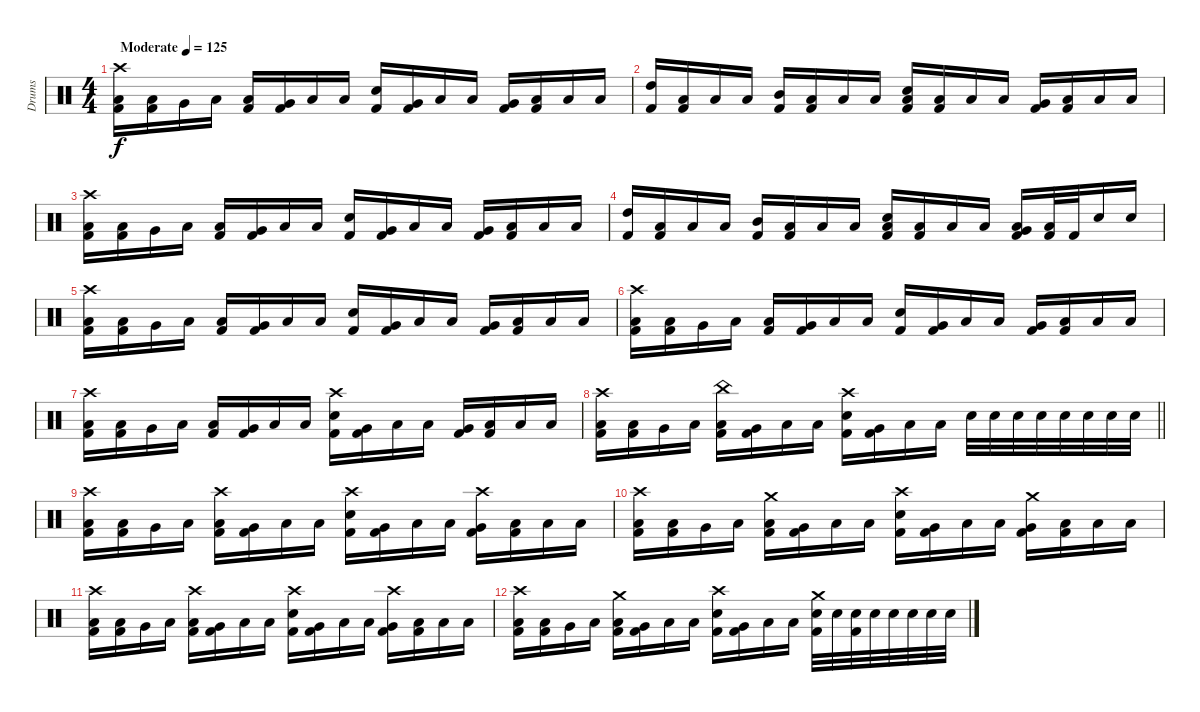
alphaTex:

\track ("Drums" "Drums") {instrument percussion}
\staff
\articulation defaults
\ts (4 4)
\tempo (125 "Moderate")
\clef neutral
\ks c
("Crash high (hit)" "Low Tom (hit)" "Kick (hit) 2").16{dy f} ("Low Floor Tom (hit)" "Kick (hit) 2").16 "Very Low Tom (hit)".16 "Low Tom (hit)".16 ("Low Floor Tom (hit)" "Kick (hit) 2").16 ("Very Low Tom (hit)" "Kick (hit) 2").16 "Low Floor Tom (hit)".16 "Low Tom (hit)".16 ("Electric Snare (hit)" "Kick (hit) 2").16 ("Very Low Tom (hit)" "Kick (hit) 2").16 "Low Tom (hit)".16 "Low Floor Tom (hit)".16 ("Very Low Tom (hit)" "Kick (hit) 2").16 ("Low Floor Tom (hit)" "Kick (hit) 2").16 "Low Tom (hit)".16 "Low Floor Tom (hit)".16 |
("High Tom (hit)" "Kick (hit) 2").16 ("Low Floor Tom (hit)" "Kick (hit) 2").16 "Low Floor Tom (hit)".16 "Low Floor Tom (hit)".16 ("Mid Tom (hit)" "Kick (hit) 2").16 ("Low Floor Tom (hit)" "Kick (hit) 2").16 "Low Floor Tom (hit)".16 "Low Floor Tom (hit)".16 ("Low Tom (hit)" "Electric Snare (hit)" "Kick (hit) 2").16 ("Low Floor Tom (hit)" "Kick (hit) 2").16 "Low Floor Tom (hit)".16 "Low Floor Tom (hit)".16 ("Very Low Tom (hit)" "Kick (hit) 2").16 ("Low Floor Tom (hit)" "Kick (hit) 2").16 "Low Floor Tom (hit)".16 "Low Floor Tom (hit)".16 |
("Crash high (hit)" "Low Tom (hit)" "Kick (hit) 2").16 ("Low Floor Tom (hit)" "Kick (hit) 2").16 "Very Low Tom (hit)".16 "Low Tom (hit)".16 ("Low Floor Tom (hit)" "Kick (hit) 2").16 ("Very Low Tom (hit)" "Kick (hit) 2").16 "Low Floor Tom (hit)".16 "Low Tom (hit)".16 ("Electric Snare (hit)" "Kick (hit) 2").16 ("Very Low Tom (hit)" "Kick (hit) 2").16 "Low Tom (hit)".16 "Low Floor Tom (hit)".16 ("Very Low Tom (hit)" "Kick (hit) 2").16 ("Low Floor Tom (hit)" "Kick (hit) 2").16 "Low Tom (hit)".16 "Low Floor Tom (hit)".16 |
("High Tom (hit)" "Kick (hit) 2").16 ("Low Floor Tom (hit)" "Kick (hit) 2").16 "Low Floor Tom (hit)".16 "Low Floor Tom (hit)".16 ("Mid Tom (hit)" "Kick (hit) 2").16 ("Low Floor Tom (hit)" "Kick (hit) 2").16 "Low Floor Tom (hit)".16 "Low Floor Tom (hit)".16 ("Low Tom (hit)" "Electric Snare (hit)" "Kick (hit) 2").16 ("Low Floor Tom (hit)" "Kick (hit) 2").16 "Low Floor Tom (hit)".16 "Low Floor Tom (hit)".16 ("Very Low Tom (hit)" "Low Floor Tom (hit)" "Kick (hit) 2").16 ("Low Floor Tom (hit)" "Kick (hit) 2").32 "Kick (hit) 2".32 "Electric Snare (hit)".16 "Electric Snare (hit)".16 |
("Crash high (hit)" "Low Tom (hit)" "Kick (hit) 2").16 ("Low Floor Tom (hit)" "Kick (hit) 2").16 "Very Low Tom (hit)".16 "Low Tom (hit)".16 ("Low Floor Tom (hit)" "Kick (hit) 2").16 ("Very Low Tom (hit)" "Kick (hit) 2").16 "Low Floor Tom (hit)".16 "Low Tom (hit)".16 ("Electric Snare (hit)" "Kick (hit) 2").16 ("Very Low Tom (hit)" "Kick (hit) 2").16 "Low Tom (hit)".16 "Low Floor Tom (hit)".16 ("Very Low Tom (hit)" "Kick (hit) 2").16 ("Low Floor Tom (hit)" "Kick (hit) 2").16 "Low Tom (hit)".16 "Low Floor Tom (hit)".16 |
("Crash high (hit)" "Low Tom (hit)" "Kick (hit) 2").16 ("Low Floor Tom (hit)" "Kick (hit) 2").16 "Very Low Tom (hit)".16 "Low Tom (hit)".16 ("Low Floor Tom (hit)" "Kick (hit) 2").16 ("Very Low Tom (hit)" "Kick (hit) 2").16 "Low Floor Tom (hit)".16 "Low Tom (hit)".16 ("Electric Snare (hit)" "Kick (hit) 2").16 ("Very Low Tom (hit)" "Kick (hit) 2").16 "Low Tom (hit)".16 "Low Floor Tom (hit)".16 ("Very Low Tom (hit)" "Kick (hit) 2").16 ("Low Floor Tom (hit)" "Kick (hit) 2").16 "Low Tom (hit)".16 "Low Floor Tom (hit)".16 |
("Crash high (hit)" "Low Tom (hit)" "Kick (hit) 2").16 ("Low Floor Tom (hit)" "Kick (hit) 2").16 "Very Low Tom (hit)".16 "Low Tom (hit)".16 ("Low Floor Tom (hit)" "Kick (hit) 2").16 ("Very Low Tom (hit)" "Kick (hit) 2").16 "Low Floor Tom (hit)".16 "Low Tom (hit)".16 ("Crash high (hit)" "Electric Snare (hit)" "Kick (hit) 2").16 ("Very Low Tom (hit)" "Kick (hit) 2").16 "Low Tom (hit)".16 "Low Floor Tom (hit)".16 ("Very Low Tom (hit)" "Kick (hit) 2").16 ("Low Floor Tom (hit)" "Kick (hit) 2").16 "Low Tom (hit)".16 "Low Floor Tom (hit)".16 |
\barLineRight lightlight
("Crash high (hit)" "Low Tom (hit)" "Kick (hit) 2").16 ("Low Floor Tom (hit)" "Kick (hit) 2").16 "Very Low Tom (hit)".16 "Low Tom (hit)".16 ("China (hit)" "Low Floor Tom (hit)" "Kick (hit) 2").16 ("Very Low Tom (hit)" "Kick (hit) 2").16 "Low Floor Tom (hit)".16 "Low Tom (hit)".16 ("Crash high (hit)" "Electric Snare (hit)" "Kick (hit) 2").16 ("Very Low Tom (hit)" "Kick (hit) 2").16 "Low Tom (hit)".16 "Low Floor Tom (hit)".16 "Electric Snare (hit)".32 "Electric Snare (hit)".32 "Electric Snare (hit)".32 "Electric Snare (hit)".32 "Electric Snare (hit)".32 "Electric Snare (hit)".32 "Electric Snare (hit)".32 "Electric Snare (hit)".32 |
("Crash high (hit)" "Low Tom (hit)" "Kick (hit) 2").16 ("Low Floor Tom (hit)" "Kick (hit) 2").16 "Very Low Tom (hit)".16 "Low Tom (hit)".16 ("Crash high (hit)" "Low Floor Tom (hit)" "Kick (hit) 2").16 ("Very Low Tom (hit)" "Kick (hit) 2").16 "Low Floor Tom (hit)".16 "Low Tom (hit)".16 ("Crash high (hit)" "Electric Snare (hit)" "Kick (hit) 2").16 ("Very Low Tom (hit)" "Kick (hit) 2").16 "Low Tom (hit)".16 "Low Floor Tom (hit)".16 ("Crash high (hit)" "Very Low Tom (hit)" "Kick (hit) 2").16 ("Low Floor Tom (hit)" "Kick (hit) 2").16 "Low Tom (hit)".16 "Low Floor Tom (hit)".16 |
("Crash high (hit)" "Low Tom (hit)" "Kick (hit) 2").16 ("Low Floor Tom (hit)" "Kick (hit) 2").16 "Very Low Tom (hit)".16 "Low Tom (hit)".16 ("Crash medium (hit)" "Low Floor Tom (hit)" "Kick (hit) 2").16 ("Very Low Tom (hit)" "Kick (hit) 2").16 "Low Floor Tom (hit)".16 "Low Tom (hit)".16 ("Crash high (hit)" "Electric Snare (hit)" "Kick (hit) 2").16 ("Very Low Tom (hit)" "Kick (hit) 2").16 "Low Tom (hit)".16 "Low Floor Tom (hit)".16 ("Crash medium (hit)" "Very Low Tom (hit)" "Kick (hit) 2").16 ("Low Floor Tom (hit)" "Kick (hit) 2").16 "Low Tom (hit)".16 "Low Floor Tom (hit)".16 |
("Crash high (hit)" "Low Tom (hit)" "Kick (hit) 2").16 ("Low Floor Tom (hit)" "Kick (hit) 2").16 "Very Low Tom (hit)".16 "Low Tom (hit)".16 ("Crash high (hit)" "Low Floor Tom (hit)" "Kick (hit) 2").16 ("Very Low Tom (hit)" "Kick (hit) 2").16 "Low Floor Tom (hit)".16 "Low Tom (hit)".16 ("Crash high (hit)" "Electric Snare (hit)" "Kick (hit) 2").16 ("Very Low Tom (hit)" "Kick (hit) 2").16 "Low Tom (hit)".16 "Low Floor Tom (hit)".16 ("Crash high (hit)" "Very Low Tom (hit)" "Kick (hit) 2").16 ("Low Floor Tom (hit)" "Kick (hit) 2").16 "Low Tom (hit)".16 "Low Floor Tom (hit)".16 |
("Crash high (hit)" "Low Tom (hit)" "Kick (hit) 2").16 ("Low Floor Tom (hit)" "Kick (hit) 2").16 "Very Low Tom (hit)".16 "Low Tom (hit)".16 ("Crash medium (hit)" "Low Floor Tom (hit)" "Kick (hit) 2").16 ("Very Low Tom (hit)" "Kick (hit) 2").16 "Low Floor Tom (hit)".16 "Low Tom (hit)".16 ("Crash high (hit)" "Electric Snare (hit)" "Kick (hit) 2").16 ("Very Low Tom (hit)" "Kick (hit) 2").16 "Low Tom (hit)".16 "Low Floor Tom (hit)".16 ("Crash medium (hit)" "Electric Snare (hit)" "Kick (hit) 2").32 "Electric Snare (hit)".32 ("Electric Snare (hit)" "Kick (hit) 2").32 "Electric Snare (hit)".32 "Electric Snare (hit)".32 "Electric Snare (hit)".32 "Electric Snare (hit)".32 "Electric Snare (hit)".32
